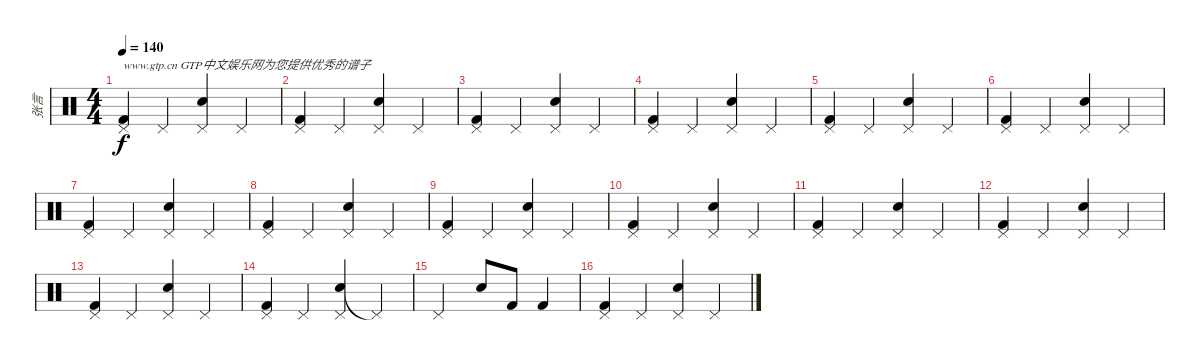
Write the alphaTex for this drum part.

\track ("张言" "张言") {instrument percussion}
\staff {score}
\articulation defaults
\ts (4 4)
\tempo 140
\clef neutral
\ks c
("Kick (hit) 2" "Pedal Hi-Hat (hit)").4{txt "www.gtp.cn GTP中文娱乐网为您提供优秀的谱子" dy f} "Pedal Hi-Hat (hit)".4 ("Snare (hit) 2" "Pedal Hi-Hat (hit)").4 "Pedal Hi-Hat (hit)".4 |
("Kick (hit) 2" "Pedal Hi-Hat (hit)").4 "Pedal Hi-Hat (hit)".4 ("Snare (hit) 2" "Pedal Hi-Hat (hit)").4 "Pedal Hi-Hat (hit)".4 |
("Kick (hit) 2" "Pedal Hi-Hat (hit)").4 "Pedal Hi-Hat (hit)".4 ("Snare (hit) 2" "Pedal Hi-Hat (hit)").4 "Pedal Hi-Hat (hit)".4 |
("Kick (hit) 2" "Pedal Hi-Hat (hit)").4 "Pedal Hi-Hat (hit)".4 ("Snare (hit) 2" "Pedal Hi-Hat (hit)").4 "Pedal Hi-Hat (hit)".4 |
("Kick (hit) 2" "Pedal Hi-Hat (hit)").4 "Pedal Hi-Hat (hit)".4 ("Snare (hit) 2" "Pedal Hi-Hat (hit)").4 "Pedal Hi-Hat (hit)".4 |
("Kick (hit) 2" "Pedal Hi-Hat (hit)").4 "Pedal Hi-Hat (hit)".4 ("Snare (hit) 2" "Pedal Hi-Hat (hit)").4 "Pedal Hi-Hat (hit)".4 |
("Kick (hit) 2" "Pedal Hi-Hat (hit)").4 "Pedal Hi-Hat (hit)".4 ("Snare (hit) 2" "Pedal Hi-Hat (hit)").4 "Pedal Hi-Hat (hit)".4 |
("Kick (hit) 2" "Pedal Hi-Hat (hit)").4 "Pedal Hi-Hat (hit)".4 ("Snare (hit) 2" "Pedal Hi-Hat (hit)").4 "Pedal Hi-Hat (hit)".4 |
("Kick (hit) 2" "Pedal Hi-Hat (hit)").4 "Pedal Hi-Hat (hit)".4 ("Snare (hit) 2" "Pedal Hi-Hat (hit)").4 "Pedal Hi-Hat (hit)".4 |
("Kick (hit) 2" "Pedal Hi-Hat (hit)").4 "Pedal Hi-Hat (hit)".4 ("Snare (hit) 2" "Pedal Hi-Hat (hit)").4 "Pedal Hi-Hat (hit)".4 |
("Kick (hit) 2" "Pedal Hi-Hat (hit)").4 "Pedal Hi-Hat (hit)".4 ("Snare (hit) 2" "Pedal Hi-Hat (hit)").4 "Pedal Hi-Hat (hit)".4 |
("Kick (hit) 2" "Pedal Hi-Hat (hit)").4 "Pedal Hi-Hat (hit)".4 ("Snare (hit) 2" "Pedal Hi-Hat (hit)").4 "Pedal Hi-Hat (hit)".4 |
("Kick (hit) 2" "Pedal Hi-Hat (hit)").4 "Pedal Hi-Hat (hit)".4 ("Snare (hit) 2" "Pedal Hi-Hat (hit)").4 "Pedal Hi-Hat (hit)".4 |
("Kick (hit) 2" "Pedal Hi-Hat (hit)").4 "Pedal Hi-Hat (hit)".4 ("Snare (hit) 2" "Pedal Hi-Hat (hit)").4 "Pedal Hi-Hat (hit)"{t}.4 |
"Pedal Hi-Hat (hit)".2 "Snare (hit) 2".8 "Kick (hit) 2".8 "Kick (hit) 2".4 |
("Kick (hit) 2" "Pedal Hi-Hat (hit)").4 "Pedal Hi-Hat (hit)".4 ("Snare (hit) 2" "Pedal Hi-Hat (hit)").4 "Pedal Hi-Hat (hit)".4
